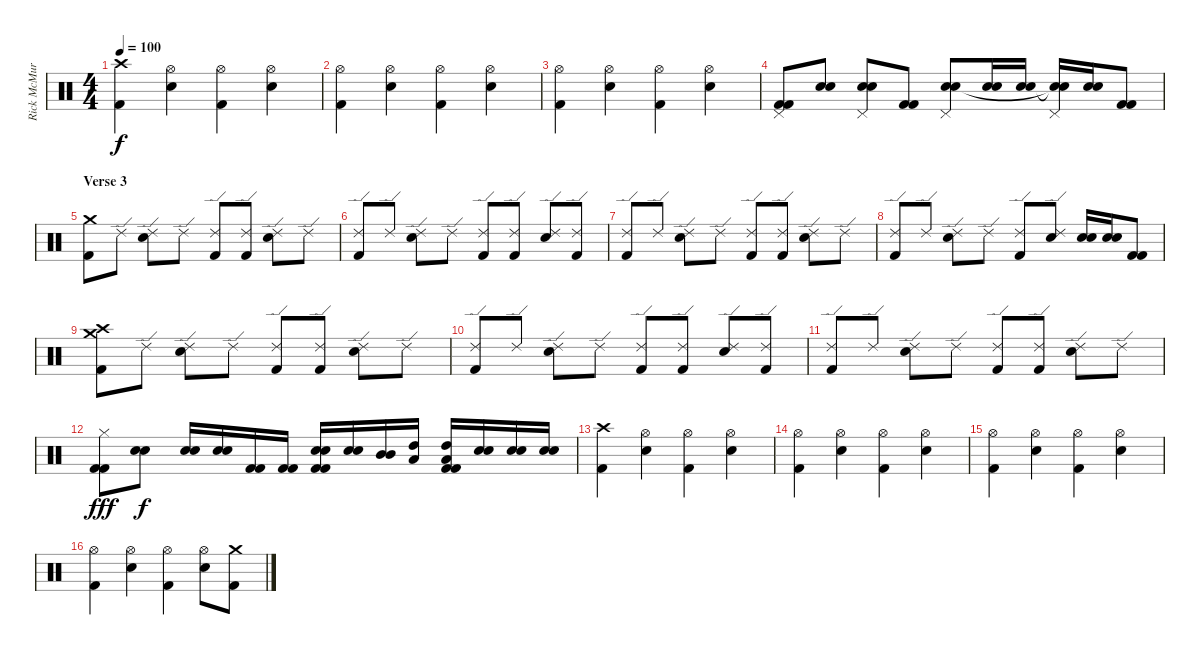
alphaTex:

\track ("Rick McMurray" "Rick McMur") {instrument percussion}
\staff {score}
\articulation defaults
\ts (4 4)
\tempo 100
\clef neutral
\ks c
("Crash high (hit)" "Kick (hit) 2").4{dy f} ("Hi-Hat (open)" "Snare (hit) 2").4 ("Hi-Hat (open)" "Kick (hit) 2").4 ("Hi-Hat (open)" "Snare (hit) 2").4 |
("Hi-Hat (open)" "Kick (hit) 2").4 ("Hi-Hat (open)" "Snare (hit) 2").4 ("Hi-Hat (open)" "Kick (hit) 2").4 ("Hi-Hat (open)" "Snare (hit) 2").4 |
("Hi-Hat (open)" "Kick (hit) 2").4 ("Hi-Hat (open)" "Snare (hit) 2").4 ("Hi-Hat (open)" "Kick (hit) 2").4 ("Hi-Hat (open)" "Snare (hit) 2").4 |
("Pedal Hi-Hat (hit)" "Kick (hit) 2" "Kick (hit) 2").8 ("Snare (hit) 2" "Snare (hit) 2").8 ("Pedal Hi-Hat (hit)" "Snare (hit) 2" "Snare (hit) 2").8 ("Kick (hit) 2" "Kick (hit) 2").8 ("Pedal Hi-Hat (hit)" "Snare (hit) 2" "Snare (hit) 2").8 ("Snare (hit) 2" "Snare (hit) 2").16 ("Snare (hit) 2" "Snare (hit) 2").16 ("Pedal Hi-Hat (hit)" "Snare (hit) 2"{t} "Snare (hit)"{t}).16 ("Snare (hit) 2" "Snare (hit) 2").16 ("Kick (hit) 2" "Kick (hit) 2").8 |
\section ("" "Verse 3")
("Crash medium (hit)" "Kick (hit) 2").8 "Ride (edge) 2".8 ("Ride (edge) 2" "Snare (hit) 2").8 "Ride (edge) 2".8 ("Ride (edge) 2" "Kick (hit) 2").8 ("Ride (edge) 2" "Kick (hit) 2").8 ("Ride (edge) 2" "Snare (hit) 2").8 "Ride (edge) 2".8 |
("Ride (edge) 2" "Kick (hit) 2").8 "Ride (edge) 2".8 ("Ride (edge) 2" "Snare (hit) 2").8 "Ride (edge) 2".8 ("Ride (edge) 2" "Kick (hit) 2").8 ("Ride (edge) 2" "Kick (hit) 2").8 ("Ride (edge) 2" "Snare (hit) 2").8 ("Ride (edge) 2" "Kick (hit) 2").8 |
("Ride (edge) 2" "Kick (hit) 2").8 "Ride (edge) 2".8 ("Ride (edge) 2" "Snare (hit) 2").8 "Ride (edge) 2".8 ("Ride (edge) 2" "Kick (hit) 2").8 ("Ride (edge) 2" "Kick (hit) 2").8 ("Ride (edge) 2" "Snare (hit) 2").8 "Ride (edge) 2".8 |
("Ride (edge) 2" "Kick (hit) 2").8 "Ride (edge) 2".8 ("Ride (edge) 2" "Snare (hit) 2").8 "Ride (edge) 2".8 ("Ride (edge) 2" "Kick (hit) 2").8 ("Ride (edge) 2" "Snare (hit) 2").8 ("Snare (hit) 2" "Snare (hit) 2").16 ("Snare (hit) 2" "Snare (hit) 2").16 ("Kick (hit) 2" "Kick (hit) 2").8 |
("Crash medium (hit)" "Crash high (hit)" "Kick (hit) 2").8 "Ride (edge) 2".8 ("Ride (edge) 2" "Snare (hit) 2").8 "Ride (edge) 2".8 ("Ride (edge) 2" "Kick (hit) 2").8 ("Ride (edge) 2" "Kick (hit) 2").8 ("Ride (edge) 2" "Snare (hit) 2").8 "Ride (edge) 2".8 |
("Ride (edge) 2" "Kick (hit) 2").8 "Ride (edge) 2".8 ("Ride (edge) 2" "Snare (hit) 2").8 "Ride (edge) 2".8 ("Ride (edge) 2" "Kick (hit) 2").8 ("Ride (edge) 2" "Kick (hit) 2").8 ("Ride (edge) 2" "Snare (hit) 2").8 ("Ride (edge) 2" "Kick (hit) 2").8 |
("Ride (edge) 2" "Kick (hit) 2").8 "Ride (edge) 2".8 ("Ride (edge) 2" "Snare (hit) 2").8 "Ride (edge) 2".8 ("Ride (edge) 2" "Kick (hit) 2").8 ("Ride (edge) 2" "Kick (hit) 2").8 ("Ride (edge) 2" "Snare (hit) 2").8 "Ride (edge) 2".8 |
("Hi-Hat (closed)" "Kick (hit) 2" "Kick (hit) 2").8{dy fff} ("Electric Snare (hit)" "Snare (hit) 2").8{dy f} ("Electric Snare (hit)" "Snare (hit) 2").16 ("Electric Snare (hit)" "Snare (hit) 2").16 ("Kick (hit) 2" "Kick (hit) 2").16 ("Kick (hit) 2" "Kick (hit) 2").16 ("Snare (hit) 2" "Snare (hit) 2" "Kick (hit) 2" "Kick (hit) 2").16 ("Snare (hit) 2" "Snare (hit) 2").16 ("Mid Tom (hit)" "Mid Tom (hit)").16 ("Low Floor Tom (hit)" "High Tom (hit)").16 ("Low Floor Tom (hit)" "High Tom (hit)" "Kick (hit) 2" "Kick (hit) 2").16 ("Electric Snare (hit)" "Snare (hit) 2").16 ("Electric Snare (hit)" "Snare (hit) 2").16 ("Electric Snare (hit)" "Snare (hit) 2").16 |
("Crash high (hit)" "Kick (hit) 2").4 ("Hi-Hat (open)" "Snare (hit) 2").4 ("Hi-Hat (open)" "Kick (hit) 2").4 ("Hi-Hat (open)" "Snare (hit) 2").4 |
("Hi-Hat (open)" "Kick (hit) 2").4 ("Hi-Hat (open)" "Snare (hit) 2").4 ("Hi-Hat (open)" "Kick (hit) 2").4 ("Hi-Hat (open)" "Snare (hit) 2").4 |
("Hi-Hat (open)" "Kick (hit) 2").4 ("Hi-Hat (open)" "Snare (hit) 2").4 ("Hi-Hat (open)" "Kick (hit) 2").4 ("Hi-Hat (open)" "Snare (hit) 2").4 |
("Hi-Hat (open)" "Kick (hit) 2").4 ("Hi-Hat (open)" "Snare (hit) 2").4 ("Hi-Hat (open)" "Kick (hit) 2").4 ("Hi-Hat (open)" "Snare (hit) 2").8 ("Crash medium (hit)" "Kick (hit) 2").8
